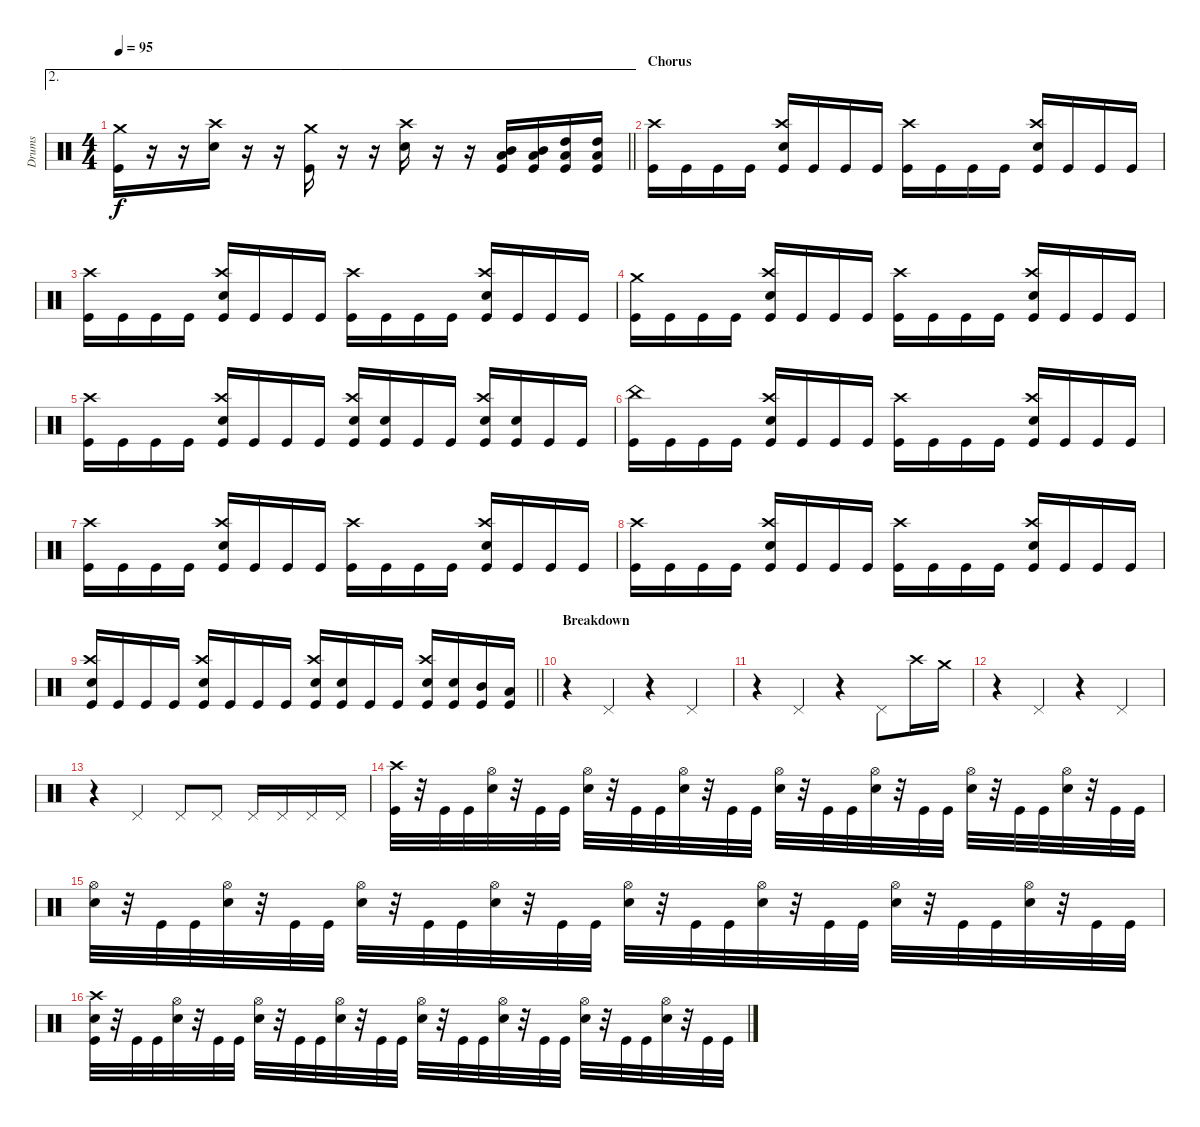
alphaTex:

\track ("Drums" "Drums") {instrument percussion}
\staff {score}
\articulation defaults
\ae 2
\ts (4 4)
\tempo 95
\clef neutral
\barLineRight lightlight
\ks c
("Crash medium (hit)" "Kick (hit)").16{dy f} r.16 r.16 ("Crash high (hit)" "Snare (hit) 2").16 r.16 r.16 ("Crash medium (hit)" "Kick (hit)").16 r.16 r.16 ("Crash high (hit)" "Snare (hit) 2").16 r.16 r.16 ("Mid Tom (hit)" "Low Tom (hit)" "Kick (hit)").16 ("Mid Tom (hit)" "Low Tom (hit)" "Kick (hit)").16 ("High Tom (hit)" "Low Tom (hit)" "Kick (hit)").16 ("High Tom (hit)" "Low Tom (hit)" "Kick (hit)").16 |
\section ("" "Chorus")
("Crash high (hit)" "Kick (hit)").16 "Kick (hit)".16 "Kick (hit)".16 "Kick (hit)".16 ("Crash high (hit)" "Snare (hit) 2" "Kick (hit)").16 "Kick (hit)".16 "Kick (hit)".16 "Kick (hit)".16 ("Crash high (hit)" "Kick (hit)").16 "Kick (hit)".16 "Kick (hit)".16 "Kick (hit)".16 ("Crash high (hit)" "Snare (hit) 2" "Kick (hit)").16 "Kick (hit)".16 "Kick (hit)".16 "Kick (hit)".16 |
("Crash high (hit)" "Kick (hit)").16 "Kick (hit)".16 "Kick (hit)".16 "Kick (hit)".16 ("Crash high (hit)" "Snare (hit) 2" "Kick (hit)").16 "Kick (hit)".16 "Kick (hit)".16 "Kick (hit)".16 ("Crash high (hit)" "Kick (hit)").16 "Kick (hit)".16 "Kick (hit)".16 "Kick (hit)".16 ("Crash high (hit)" "Snare (hit) 2" "Kick (hit)").16 "Kick (hit)".16 "Kick (hit)".16 "Kick (hit)".16 |
("Crash medium (hit)" "Kick (hit)").16 "Kick (hit)".16 "Kick (hit)".16 "Kick (hit)".16 ("Crash high (hit)" "Snare (hit) 2" "Kick (hit)").16 "Kick (hit)".16 "Kick (hit)".16 "Kick (hit)".16 ("Crash high (hit)" "Kick (hit)").16 "Kick (hit)".16 "Kick (hit)".16 "Kick (hit)".16 ("Crash high (hit)" "Snare (hit) 2" "Kick (hit)").16 "Kick (hit)".16 "Kick (hit)".16 "Kick (hit)".16 |
("Crash high (hit)" "Kick (hit)").16 "Kick (hit)".16 "Kick (hit)".16 "Kick (hit)".16 ("Crash high (hit)" "Snare (hit) 2" "Kick (hit)").16 "Kick (hit)".16 "Kick (hit)".16 "Kick (hit)".16 ("Crash high (hit)" "Snare (hit) 2" "Kick (hit)").16 ("Snare (hit) 2" "Kick (hit)").16 "Kick (hit)".16 "Kick (hit)".16 ("Crash high (hit)" "Snare (hit) 2" "Kick (hit)").16 ("Snare (hit) 2" "Kick (hit)").16 "Kick (hit)".16 "Kick (hit)".16 |
("China (hit)" "Kick (hit)").16 "Kick (hit)".16 "Kick (hit)".16 "Kick (hit)".16 ("Crash high (hit)" "Snare (hit) 2" "Kick (hit)").16 "Kick (hit)".16 "Kick (hit)".16 "Kick (hit)".16 ("Crash high (hit)" "Kick (hit)").16 "Kick (hit)".16 "Kick (hit)".16 "Kick (hit)".16 ("Crash high (hit)" "Snare (hit) 2" "Kick (hit)").16 "Kick (hit)".16 "Kick (hit)".16 "Kick (hit)".16 |
("Crash high (hit)" "Kick (hit)").16 "Kick (hit)".16 "Kick (hit)".16 "Kick (hit)".16 ("Crash high (hit)" "Snare (hit) 2" "Kick (hit)").16 "Kick (hit)".16 "Kick (hit)".16 "Kick (hit)".16 ("Crash high (hit)" "Kick (hit)").16 "Kick (hit)".16 "Kick (hit)".16 "Kick (hit)".16 ("Crash high (hit)" "Snare (hit) 2" "Kick (hit)").16 "Kick (hit)".16 "Kick (hit)".16 "Kick (hit)".16 |
("Crash high (hit)" "Kick (hit)").16 "Kick (hit)".16 "Kick (hit)".16 "Kick (hit)".16 ("Crash high (hit)" "Snare (hit) 2" "Kick (hit)").16 "Kick (hit)".16 "Kick (hit)".16 "Kick (hit)".16 ("Crash high (hit)" "Kick (hit)").16 "Kick (hit)".16 "Kick (hit)".16 "Kick (hit)".16 ("Crash high (hit)" "Snare (hit) 2" "Kick (hit)").16 "Kick (hit)".16 "Kick (hit)".16 "Kick (hit)".16 |
\barLineRight lightlight
("Crash high (hit)" "Snare (hit) 2" "Kick (hit)").16 "Kick (hit)".16 "Kick (hit)".16 "Kick (hit)".16 ("Crash high (hit)" "Snare (hit) 2" "Kick (hit)").16 "Kick (hit)".16 "Kick (hit)".16 "Kick (hit)".16 ("Crash high (hit)" "Snare (hit) 2" "Kick (hit)").16 ("Snare (hit) 2" "Kick (hit)").16 "Kick (hit)".16 "Kick (hit)".16 ("Crash high (hit)" "Snare (hit) 2" "Kick (hit)").16 ("Snare (hit) 2" "Kick (hit)").16 ("Mid Tom (hit)" "Kick (hit)").16 ("Low Tom (hit)" "Kick (hit)").16 |
\section ("" "Breakdown")
r.4 "Pedal Hi-Hat (hit)".4 r.4 "Pedal Hi-Hat (hit)".4 |
r.4 "Pedal Hi-Hat (hit)".4 r.4 "Pedal Hi-Hat (hit)".8 "Crash high (hit)".16 "Crash medium (hit)".16 |
r.4 "Pedal Hi-Hat (hit)".4 r.4 "Pedal Hi-Hat (hit)".4 |
r.4 "Pedal Hi-Hat (hit)".4 "Pedal Hi-Hat (hit)".8 "Pedal Hi-Hat (hit)".8 "Pedal Hi-Hat (hit)".16 "Pedal Hi-Hat (hit)".16 "Pedal Hi-Hat (hit)".16 "Pedal Hi-Hat (hit)".16 |
("Crash high (hit)" "Kick (hit)").32 r.32 "Kick (hit)".32 "Kick (hit)".32 ("Hi-Hat (open)" "Snare (hit) 2").32 r.32 "Kick (hit)".32 "Kick (hit)".32 ("Hi-Hat (open)" "Snare (hit) 2").32 r.32 "Kick (hit)".32 "Kick (hit)".32 ("Hi-Hat (open)" "Snare (hit) 2").32 r.32 "Kick (hit)".32 "Kick (hit)".32 ("Hi-Hat (open)" "Snare (hit) 2").32 r.32 "Kick (hit)".32 "Kick (hit)".32 ("Hi-Hat (open)" "Snare (hit) 2").32 r.32 "Kick (hit)".32 "Kick (hit)".32 ("Hi-Hat (open)" "Snare (hit) 2").32 r.32 "Kick (hit)".32 "Kick (hit)".32 ("Hi-Hat (open)" "Snare (hit) 2").32 r.32 "Kick (hit)".32 "Kick (hit)".32 |
("Hi-Hat (open)" "Snare (hit) 2").32 r.32 "Kick (hit)".32 "Kick (hit)".32 ("Hi-Hat (open)" "Snare (hit) 2").32 r.32 "Kick (hit)".32 "Kick (hit)".32 ("Hi-Hat (open)" "Snare (hit) 2").32 r.32 "Kick (hit)".32 "Kick (hit)".32 ("Hi-Hat (open)" "Snare (hit) 2").32 r.32 "Kick (hit)".32 "Kick (hit)".32 ("Hi-Hat (open)" "Snare (hit) 2").32 r.32 "Kick (hit)".32 "Kick (hit)".32 ("Hi-Hat (open)" "Snare (hit) 2").32 r.32 "Kick (hit)".32 "Kick (hit)".32 ("Hi-Hat (open)" "Snare (hit) 2").32 r.32 "Kick (hit)".32 "Kick (hit)".32 ("Hi-Hat (open)" "Snare (hit) 2").32 r.32 "Kick (hit)".32 "Kick (hit)".32 |
("Crash high (hit)" "Snare (hit) 2" "Kick (hit)").32 r.32 "Kick (hit)".32 "Kick (hit)".32 ("Hi-Hat (open)" "Snare (hit) 2").32 r.32 "Kick (hit)".32 "Kick (hit)".32 ("Hi-Hat (open)" "Snare (hit) 2").32 r.32 "Kick (hit)".32 "Kick (hit)".32 ("Hi-Hat (open)" "Snare (hit) 2").32 r.32 "Kick (hit)".32 "Kick (hit)".32 ("Hi-Hat (open)" "Snare (hit) 2").32 r.32 "Kick (hit)".32 "Kick (hit)".32 ("Hi-Hat (open)" "Snare (hit) 2").32 r.32 "Kick (hit)".32 "Kick (hit)".32 ("Hi-Hat (open)" "Snare (hit) 2").32 r.32 "Kick (hit)".32 "Kick (hit)".32 ("Hi-Hat (open)" "Snare (hit) 2").32 r.32 "Kick (hit)".32 "Kick (hit)".32
